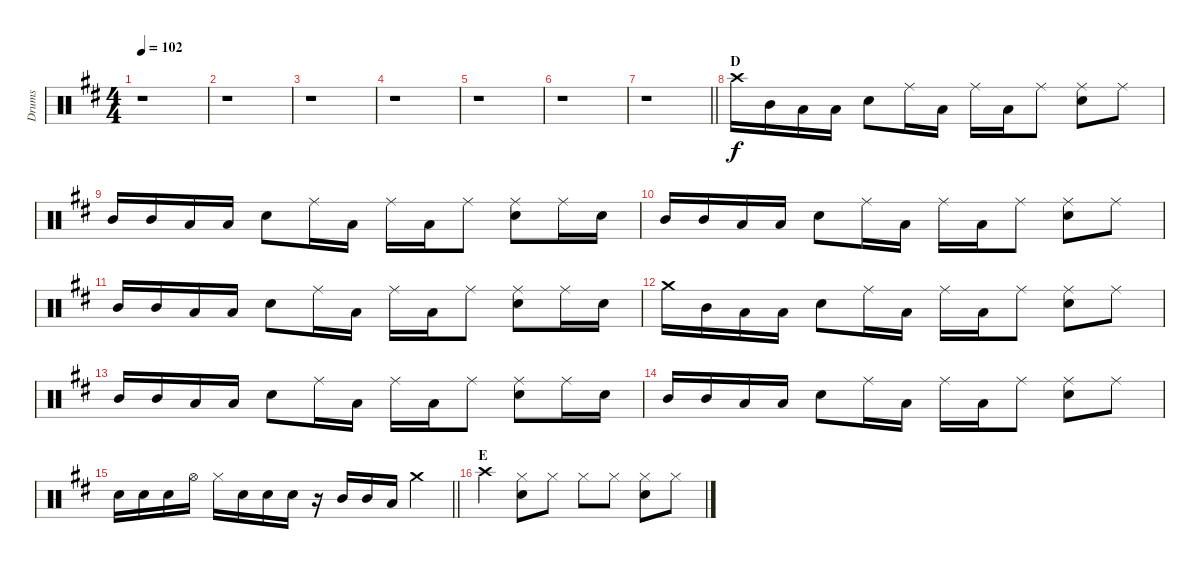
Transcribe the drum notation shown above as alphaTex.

\track ("Drums" "Drums") {instrument percussion}
\staff {score}
\articulation defaults
\ts (4 4)
\tempo 102
\clef neutral
\ks d
r.1{dy f} |
r.1 |
r.1 |
r.1 |
r.1 |
r.1 |
\barLineRight lightlight
r.1 |
\section ("" "D")
"Crash high (hit)".16 "Mid Tom (hit)".16 "Low Tom (hit)".16 "Low Tom (hit)".16 "Snare (hit) 2".8 "Ride (middle)".16 "Low Tom (hit)".16 "Ride (middle)".16 "Low Tom (hit)".16 "Ride (middle)".8 ("Ride (middle)" "Snare (hit) 2").8 "Ride (middle)".8 |
"Mid Tom (hit)".16 "Mid Tom (hit)".16 "Low Tom (hit)".16 "Low Tom (hit)".16 "Snare (hit) 2".8 "Ride (middle)".16 "Low Tom (hit)".16 "Ride (middle)".16 "Low Tom (hit)".16 "Ride (middle)".8 ("Ride (middle)" "Snare (hit) 2").8 "Ride (middle)".16 "Snare (hit) 2".16 |
"Mid Tom (hit)".16 "Mid Tom (hit)".16 "Low Tom (hit)".16 "Low Tom (hit)".16 "Snare (hit) 2".8 "Ride (middle)".16 "Low Tom (hit)".16 "Ride (middle)".16 "Low Tom (hit)".16 "Ride (middle)".8 ("Ride (middle)" "Snare (hit) 2").8 "Ride (middle)".8 |
"Mid Tom (hit)".16 "Mid Tom (hit)".16 "Low Tom (hit)".16 "Low Tom (hit)".16 "Snare (hit) 2".8 "Ride (middle)".16 "Low Tom (hit)".16 "Ride (middle)".16 "Low Tom (hit)".16 "Ride (middle)".8 ("Ride (middle)" "Snare (hit) 2").8 "Ride (middle)".16 "Snare (hit) 2".16 |
"Crash medium (hit)".16 "Mid Tom (hit)".16 "Low Tom (hit)".16 "Low Tom (hit)".16 "Snare (hit) 2".8 "Ride (middle)".16 "Low Tom (hit)".16 "Ride (middle)".16 "Low Tom (hit)".16 "Ride (middle)".8 ("Ride (middle)" "Snare (hit) 2").8 "Ride (middle)".8 |
"Mid Tom (hit)".16 "Mid Tom (hit)".16 "Low Tom (hit)".16 "Low Tom (hit)".16 "Snare (hit) 2".8 "Ride (middle)".16 "Low Tom (hit)".16 "Ride (middle)".16 "Low Tom (hit)".16 "Ride (middle)".8 ("Ride (middle)" "Snare (hit) 2").8 "Ride (middle)".16 "Snare (hit) 2".16 |
"Mid Tom (hit)".16 "Mid Tom (hit)".16 "Low Tom (hit)".16 "Low Tom (hit)".16 "Snare (hit) 2".8 "Ride (middle)".16 "Low Tom (hit)".16 "Ride (middle)".16 "Low Tom (hit)".16 "Ride (middle)".8 ("Ride (middle)" "Snare (hit) 2").8 "Ride (middle)".8 |
\barLineRight lightlight "Snare (hit) 2".16 "Snare (hit) 2".16 "Snare (hit) 2".16 "Hi-Hat (open)".16 "Hi-Hat (closed)".16 "Snare (hit) 2".16 "Snare (hit) 2".16 "Snare (hit) 2".16
r.16 "Mid Tom (hit)".16 "Mid Tom (hit)".16 "Low Tom (hit)".16 "Crash medium (hit)".4 |
\section ("" "E")
"Crash high (hit)".4 ("Hi-Hat (closed)" "Snare (hit) 2").8 "Hi-Hat (closed)".8 "Hi-Hat (closed)".8 "Hi-Hat (closed)".8 ("Hi-Hat (closed)" "Snare (hit) 2").8 "Hi-Hat (closed)".8
